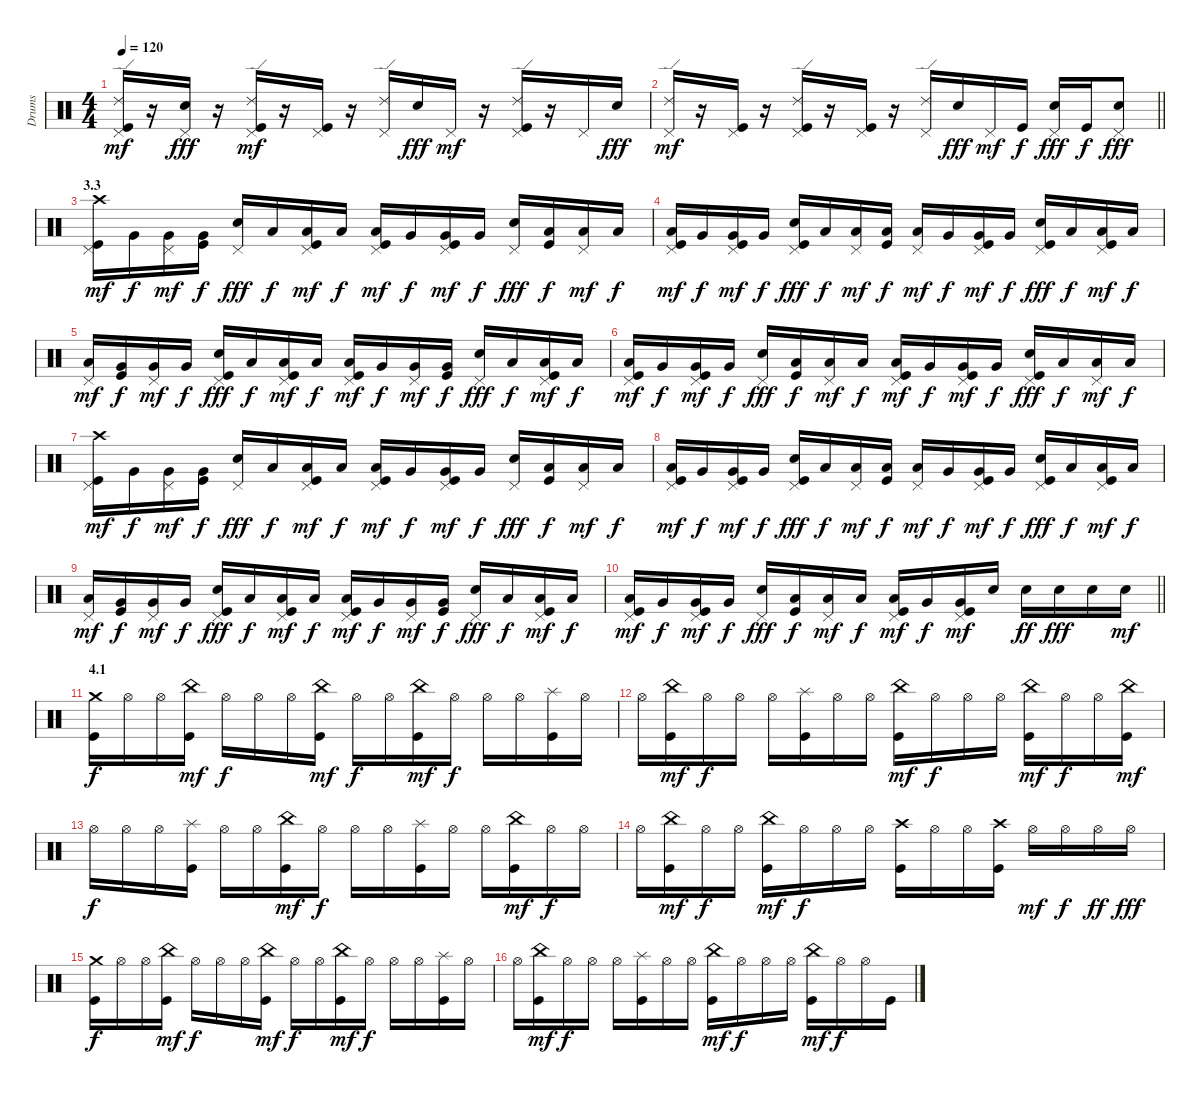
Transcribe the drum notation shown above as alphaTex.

\track ("Drums" "Drums") {instrument percussion}
\staff {score}
\articulation defaults
\ts (4 4)
\tempo 120
\clef neutral
\ks c
("Ride (edge) 2" "Pedal Hi-Hat (hit)" "Kick (hit)").16{dy mf} r.16 ("Pedal Hi-Hat (hit)" "Snare (hit) 2").16{dy fff} r.16 ("Ride (edge) 2" "Pedal Hi-Hat (hit)" "Kick (hit)").16{dy mf} r.16 ("Pedal Hi-Hat (hit)" "Kick (hit)").16 r.16 ("Ride (edge) 2" "Pedal Hi-Hat (hit)").16 "Snare (hit) 2".16{dy fff} "Pedal Hi-Hat (hit)".16{dy mf} r.16 ("Ride (edge) 2" "Pedal Hi-Hat (hit)" "Kick (hit)").16 r.16 "Pedal Hi-Hat (hit)".16 "Snare (hit) 2".16{dy fff} |
\barLineRight lightlight
("Ride (edge) 2" "Pedal Hi-Hat (hit)").16{dy mf} r.16 ("Pedal Hi-Hat (hit)" "Kick (hit)").16 r.16 ("Ride (edge) 2" "Pedal Hi-Hat (hit)" "Kick (hit)").16 r.16 ("Pedal Hi-Hat (hit)" "Kick (hit)").16 r.16 ("Ride (edge) 2" "Pedal Hi-Hat (hit)").16 "Snare (hit) 2".16{dy fff} "Pedal Hi-Hat (hit)".16{dy mf} "Kick (hit)".16{dy f} ("Pedal Hi-Hat (hit)" "Snare (hit) 2").16{dy fff} "Kick (hit)".16{dy f} ("Pedal Hi-Hat (hit)" "Snare (hit) 2").8{dy fff} |
\section ("" "3.3")
("Crash high (hit)" "Pedal Hi-Hat (hit)" "Kick (hit)").16{dy mf} "Very Low Tom (hit)".16{dy f} ("Pedal Hi-Hat (hit)" "Very Low Tom (hit)").16{dy mf} ("Very Low Tom (hit)" "Kick (hit)").16{dy f} ("Pedal Hi-Hat (hit)" "Snare (hit) 2").16{dy fff} "Low Tom (hit)".16{dy f} ("Pedal Hi-Hat (hit)" "Low Tom (hit)" "Kick (hit)").16{dy mf} "Low Tom (hit)".16{dy f} ("Pedal Hi-Hat (hit)" "Low Floor Tom (hit)" "Kick (hit)").16{dy mf} "Very Low Tom (hit)".16{dy f} ("Pedal Hi-Hat (hit)" "Very Low Tom (hit)" "Kick (hit)").16{dy mf} "Very Low Tom (hit)".16{dy f} ("Pedal Hi-Hat (hit)" "Snare (hit) 2").16{dy fff} ("Low Tom (hit)" "Kick (hit)").16{dy f} ("Pedal Hi-Hat (hit)" "Low Tom (hit)").16{dy mf} "Low Tom (hit)".16{dy f} |
("Pedal Hi-Hat (hit)" "Low Floor Tom (hit)" "Kick (hit)").16{dy mf} "Very Low Tom (hit)".16{dy f} ("Pedal Hi-Hat (hit)" "Very Low Tom (hit)" "Kick (hit)").16{dy mf} "Very Low Tom (hit)".16{dy f} ("Pedal Hi-Hat (hit)" "Snare (hit) 2" "Kick (hit)").16{dy fff} "Low Tom (hit)".16{dy f} ("Pedal Hi-Hat (hit)" "Low Tom (hit)").16{dy mf} ("Low Tom (hit)" "Kick (hit)").16{dy f} ("Pedal Hi-Hat (hit)" "Low Floor Tom (hit)").16{dy mf} "Very Low Tom (hit)".16{dy f} ("Pedal Hi-Hat (hit)" "Very Low Tom (hit)" "Kick (hit)").16{dy mf} "Very Low Tom (hit)".16{dy f} ("Pedal Hi-Hat (hit)" "Snare (hit) 2" "Kick (hit)").16{dy fff} "Low Tom (hit)".16{dy f} ("Pedal Hi-Hat (hit)" "Low Tom (hit)" "Kick (hit)").16{dy mf} "Low Tom (hit)".16{dy f} |
("Pedal Hi-Hat (hit)" "Low Floor Tom (hit)").16{dy mf} ("Very Low Tom (hit)" "Kick (hit)").16{dy f} ("Pedal Hi-Hat (hit)" "Very Low Tom (hit)").16{dy mf} "Very Low Tom (hit)".16{dy f} ("Pedal Hi-Hat (hit)" "Snare (hit) 2" "Kick (hit)").16{dy fff} "Low Tom (hit)".16{dy f} ("Pedal Hi-Hat (hit)" "Low Tom (hit)" "Kick (hit)").16{dy mf} "Low Tom (hit)".16{dy f} ("Pedal Hi-Hat (hit)" "Low Floor Tom (hit)" "Kick (hit)").16{dy mf} "Very Low Tom (hit)".16{dy f} ("Pedal Hi-Hat (hit)" "Very Low Tom (hit)").16{dy mf} ("Very Low Tom (hit)" "Kick (hit)").16{dy f} ("Pedal Hi-Hat (hit)" "Snare (hit) 2").16{dy fff} "Low Tom (hit)".16{dy f} ("Pedal Hi-Hat (hit)" "Low Tom (hit)" "Kick (hit)").16{dy mf} "Low Tom (hit)".16{dy f} |
("Pedal Hi-Hat (hit)" "Low Floor Tom (hit)" "Kick (hit)").16{dy mf} "Very Low Tom (hit)".16{dy f} ("Pedal Hi-Hat (hit)" "Very Low Tom (hit)" "Kick (hit)").16{dy mf} "Very Low Tom (hit)".16{dy f} ("Pedal Hi-Hat (hit)" "Snare (hit) 2").16{dy fff} ("Low Tom (hit)" "Kick (hit)").16{dy f} ("Pedal Hi-Hat (hit)" "Low Tom (hit)").16{dy mf} "Low Tom (hit)".16{dy f} ("Pedal Hi-Hat (hit)" "Low Floor Tom (hit)" "Kick (hit)").16{dy mf} "Very Low Tom (hit)".16{dy f} ("Pedal Hi-Hat (hit)" "Very Low Tom (hit)" "Kick (hit)").16{dy mf} "Very Low Tom (hit)".16{dy f} ("Pedal Hi-Hat (hit)" "Snare (hit) 2" "Kick (hit)").16{dy fff} "Low Tom (hit)".16{dy f} ("Pedal Hi-Hat (hit)" "Low Tom (hit)").16{dy mf} "Low Tom (hit)".16{dy f} |
("Crash high (hit)" "Pedal Hi-Hat (hit)" "Kick (hit)").16{dy mf} "Very Low Tom (hit)".16{dy f} ("Pedal Hi-Hat (hit)" "Very Low Tom (hit)").16{dy mf} ("Very Low Tom (hit)" "Kick (hit)").16{dy f} ("Pedal Hi-Hat (hit)" "Snare (hit) 2").16{dy fff} "Low Tom (hit)".16{dy f} ("Pedal Hi-Hat (hit)" "Low Tom (hit)" "Kick (hit)").16{dy mf} "Low Tom (hit)".16{dy f} ("Pedal Hi-Hat (hit)" "Low Floor Tom (hit)" "Kick (hit)").16{dy mf} "Very Low Tom (hit)".16{dy f} ("Pedal Hi-Hat (hit)" "Very Low Tom (hit)" "Kick (hit)").16{dy mf} "Very Low Tom (hit)".16{dy f} ("Pedal Hi-Hat (hit)" "Snare (hit) 2").16{dy fff} ("Low Tom (hit)" "Kick (hit)").16{dy f} ("Pedal Hi-Hat (hit)" "Low Tom (hit)").16{dy mf} "Low Tom (hit)".16{dy f} |
("Pedal Hi-Hat (hit)" "Low Floor Tom (hit)" "Kick (hit)").16{dy mf} "Very Low Tom (hit)".16{dy f} ("Pedal Hi-Hat (hit)" "Very Low Tom (hit)" "Kick (hit)").16{dy mf} "Very Low Tom (hit)".16{dy f} ("Pedal Hi-Hat (hit)" "Snare (hit) 2" "Kick (hit)").16{dy fff} "Low Tom (hit)".16{dy f} ("Pedal Hi-Hat (hit)" "Low Tom (hit)").16{dy mf} ("Low Tom (hit)" "Kick (hit)").16{dy f} ("Pedal Hi-Hat (hit)" "Low Floor Tom (hit)").16{dy mf} "Very Low Tom (hit)".16{dy f} ("Pedal Hi-Hat (hit)" "Very Low Tom (hit)" "Kick (hit)").16{dy mf} "Very Low Tom (hit)".16{dy f} ("Pedal Hi-Hat (hit)" "Snare (hit) 2" "Kick (hit)").16{dy fff} "Low Tom (hit)".16{dy f} ("Pedal Hi-Hat (hit)" "Low Tom (hit)" "Kick (hit)").16{dy mf} "Low Tom (hit)".16{dy f} |
("Pedal Hi-Hat (hit)" "Low Floor Tom (hit)").16{dy mf} ("Very Low Tom (hit)" "Kick (hit)").16{dy f} ("Pedal Hi-Hat (hit)" "Very Low Tom (hit)").16{dy mf} "Very Low Tom (hit)".16{dy f} ("Pedal Hi-Hat (hit)" "Snare (hit) 2" "Kick (hit)").16{dy fff} "Low Tom (hit)".16{dy f} ("Pedal Hi-Hat (hit)" "Low Tom (hit)" "Kick (hit)").16{dy mf} "Low Tom (hit)".16{dy f} ("Pedal Hi-Hat (hit)" "Low Floor Tom (hit)" "Kick (hit)").16{dy mf} "Very Low Tom (hit)".16{dy f} ("Pedal Hi-Hat (hit)" "Very Low Tom (hit)").16{dy mf} ("Very Low Tom (hit)" "Kick (hit)").16{dy f} ("Pedal Hi-Hat (hit)" "Snare (hit) 2").16{dy fff} "Low Tom (hit)".16{dy f} ("Pedal Hi-Hat (hit)" "Low Tom (hit)" "Kick (hit)").16{dy mf} "Low Tom (hit)".16{dy f} |
\barLineRight lightlight
("Pedal Hi-Hat (hit)" "Low Floor Tom (hit)" "Kick (hit)").16{dy mf} "Very Low Tom (hit)".16{dy f} ("Pedal Hi-Hat (hit)" "Very Low Tom (hit)" "Kick (hit)").16{dy mf} "Very Low Tom (hit)".16{dy f} ("Pedal Hi-Hat (hit)" "Snare (hit) 2").16{dy fff} ("Low Tom (hit)" "Kick (hit)").16{dy f} ("Pedal Hi-Hat (hit)" "Low Tom (hit)").16{dy mf} "Low Tom (hit)".16{dy f} ("Pedal Hi-Hat (hit)" "Low Floor Tom (hit)" "Kick (hit)").16{dy mf} "Very Low Tom (hit)".16{dy f} ("Pedal Hi-Hat (hit)" "Very Low Tom (hit)" "Kick (hit)").16{dy mf} "Snare (hit) 2".16 "Snare (hit) 2".16{dy ff} "Snare (hit) 2".16{dy fff} "Snare (hit) 2".16 "Snare (hit) 2".16{dy mf} |
\section ("" "4.1")
("Crash medium (hit)" "Kick (hit)").16{dy f} "Hi-Hat (open)".16 "Hi-Hat (open)".16 ("China (hit)" "Kick (hit)").16{dy mf} "Hi-Hat (open)".16{dy f} "Hi-Hat (open)".16 "Hi-Hat (open)".16 ("China (hit)" "Kick (hit)").16{dy mf} "Hi-Hat (open)".16{dy f} "Hi-Hat (open)".16 ("China (hit)" "Kick (hit)").16{dy mf} "Hi-Hat (open)".16{dy f} "Hi-Hat (open)".16 "Hi-Hat (open)".16 ("Splash (hit)" "Kick (hit)").16 "Hi-Hat (open)".16 |
"Hi-Hat (open)".16 ("China (hit)" "Kick (hit)").16{dy mf} "Hi-Hat (open)".16{dy f} "Hi-Hat (open)".16 "Hi-Hat (open)".16 ("Splash (hit)" "Kick (hit)").16 "Hi-Hat (open)".16 "Hi-Hat (open)".16 ("China (hit)" "Kick (hit)").16{dy mf} "Hi-Hat (open)".16{dy f} "Hi-Hat (open)".16 "Hi-Hat (open)".16 ("China (hit)" "Kick (hit)").16{dy mf} "Hi-Hat (open)".16{dy f} "Hi-Hat (open)".16 ("China (hit)" "Kick (hit)").16{dy mf} |
"Hi-Hat (open)".16{dy f} "Hi-Hat (open)".16 "Hi-Hat (open)".16 ("Splash (hit)" "Kick (hit)").16 "Hi-Hat (open)".16 "Hi-Hat (open)".16 ("China (hit)" "Kick (hit)").16{dy mf} "Hi-Hat (open)".16{dy f} "Hi-Hat (open)".16 "Hi-Hat (open)".16 ("Splash (hit)" "Kick (hit)").16 "Hi-Hat (open)".16 "Hi-Hat (open)".16 ("China (hit)" "Kick (hit)").16{dy mf} "Hi-Hat (open)".16{dy f} "Hi-Hat (open)".16 |
"Hi-Hat (open)".16 ("China (hit)" "Kick (hit)").16{dy mf} "Hi-Hat (open)".16{dy f} "Hi-Hat (open)".16 ("China (hit)" "Kick (hit)").16{dy mf} "Hi-Hat (open)".16{dy f} "Hi-Hat (open)".16 "Hi-Hat (open)".16 ("Crash high (hit)" "Kick (hit)").16 "Hi-Hat (open)".16 "Hi-Hat (open)".16 ("Crash high (hit)" "Kick (hit)").16 "Hi-Hat (open)".16{dy mf} "Hi-Hat (open)".16{dy f} "Hi-Hat (open)".16{dy ff} "Hi-Hat (open)".16{dy fff} |
("Crash medium (hit)" "Kick (hit)").16{dy f} "Hi-Hat (open)".16 "Hi-Hat (open)".16 ("China (hit)" "Kick (hit)").16{dy mf} "Hi-Hat (open)".16{dy f} "Hi-Hat (open)".16 "Hi-Hat (open)".16 ("China (hit)" "Kick (hit)").16{dy mf} "Hi-Hat (open)".16{dy f} "Hi-Hat (open)".16 ("China (hit)" "Kick (hit)").16{dy mf} "Hi-Hat (open)".16{dy f} "Hi-Hat (open)".16 "Hi-Hat (open)".16 ("Splash (hit)" "Kick (hit)").16 "Hi-Hat (open)".16 |
"Hi-Hat (open)".16 ("China (hit)" "Kick (hit)").16{dy mf} "Hi-Hat (open)".16{dy f} "Hi-Hat (open)".16 "Hi-Hat (open)".16 ("Splash (hit)" "Kick (hit)").16 "Hi-Hat (open)".16 "Hi-Hat (open)".16 ("China (hit)" "Kick (hit)").16{dy mf} "Hi-Hat (open)".16{dy f} "Hi-Hat (open)".16 "Hi-Hat (open)".16 ("China (hit)" "Kick (hit)").16{dy mf} "Hi-Hat (open)".16{dy f} "Hi-Hat (open)".16 "Kick (hit)".16
